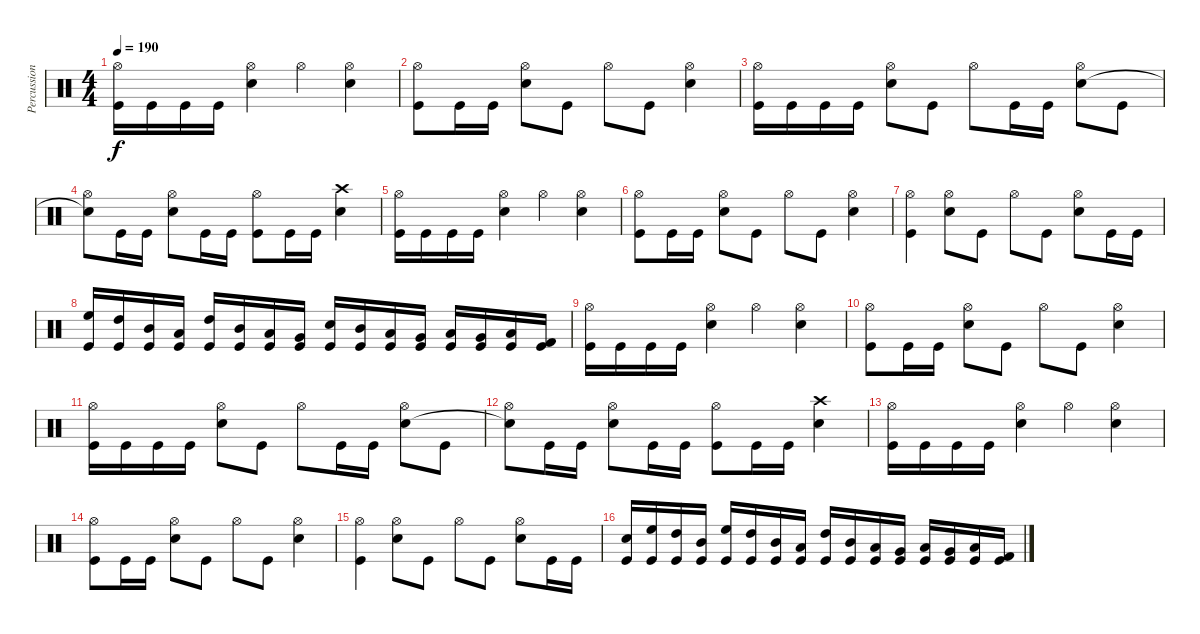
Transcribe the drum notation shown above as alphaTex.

\track ("Percussions" "Percussion") {instrument percussion}
\staff {score}
\articulation defaults
\ts (4 4)
\tempo 190
\clef neutral
\ks c
("Hi-Hat (open)" "Kick (hit)").16{dy f} "Kick (hit)".16 "Kick (hit)".16 "Kick (hit)".16 ("Hi-Hat (open)" "Snare (hit) 2").4 "Hi-Hat (open)".4 ("Hi-Hat (open)" "Snare (hit) 2").4 |
("Hi-Hat (open)" "Kick (hit)").8 "Kick (hit)".16 "Kick (hit)".16 ("Hi-Hat (open)" "Snare (hit) 2").8 "Kick (hit)".8 "Hi-Hat (open)".8 "Kick (hit)".8 ("Hi-Hat (open)" "Snare (hit) 2").4 |
("Hi-Hat (open)" "Kick (hit)").16 "Kick (hit)".16 "Kick (hit)".16 "Kick (hit)".16 ("Hi-Hat (open)" "Snare (hit) 2").8 "Kick (hit)".8 "Hi-Hat (open)".8 "Kick (hit)".16 "Kick (hit)".16 ("Hi-Hat (open)" "Snare (hit) 2").8 "Kick (hit)".8 |
("Hi-Hat (open)" "Snare (hit)"{t}).8 "Kick (hit)".16 "Kick (hit)".16 ("Hi-Hat (open)" "Snare (hit) 2").8 "Kick (hit)".16 "Kick (hit)".16 ("Hi-Hat (open)" "Kick (hit)").8 "Kick (hit)".16 "Kick (hit)".16 ("Crash high (hit)" "Snare (hit) 2").4 |
("Hi-Hat (open)" "Kick (hit)").16 "Kick (hit)".16 "Kick (hit)".16 "Kick (hit)".16 ("Hi-Hat (open)" "Snare (hit) 2").4 "Hi-Hat (open)".4 ("Hi-Hat (open)" "Snare (hit) 2").4 |
("Hi-Hat (open)" "Kick (hit)").8 "Kick (hit)".16 "Kick (hit)".16 ("Hi-Hat (open)" "Snare (hit) 2").8 "Kick (hit)".8 "Hi-Hat (open)".8 "Kick (hit)".8 ("Hi-Hat (open)" "Snare (hit) 2").4 |
("Hi-Hat (open)" "Kick (hit)").4 ("Hi-Hat (open)" "Snare (hit) 2").8 "Kick (hit)".8 "Hi-Hat (open)".8 "Kick (hit)".8 ("Hi-Hat (open)" "Snare (hit) 2").8 "Kick (hit)".16 "Kick (hit)".16 |
("High Floor Tom (hit)" "Kick (hit)").16 ("High Tom (hit)" "Kick (hit)").16 ("Mid Tom (hit)" "Kick (hit)").16 ("Low Tom (hit)" "Kick (hit)").16 ("High Tom (hit)" "Kick (hit)").16 ("Mid Tom (hit)" "Kick (hit)").16 ("Low Tom (hit)" "Kick (hit)").16 ("Very Low Tom (hit)" "Kick (hit)").16 ("Snare (hit) 2" "Kick (hit)").16 ("Mid Tom (hit)" "Kick (hit)").16 ("Low Tom (hit)" "Kick (hit)").16 ("Very Low Tom (hit)" "Kick (hit)").16 ("Low Tom (hit)" "Kick (hit)").16 ("Very Low Tom (hit)" "Kick (hit)").16 ("Low Floor Tom (hit)" "Kick (hit)").16 ("Kick (hit) 2" "Kick (hit)").16 |
("Hi-Hat (open)" "Kick (hit)").16 "Kick (hit)".16 "Kick (hit)".16 "Kick (hit)".16 ("Hi-Hat (open)" "Snare (hit) 2").4 "Hi-Hat (open)".4 ("Hi-Hat (open)" "Snare (hit) 2").4 |
("Hi-Hat (open)" "Kick (hit)").8 "Kick (hit)".16 "Kick (hit)".16 ("Hi-Hat (open)" "Snare (hit) 2").8 "Kick (hit)".8 "Hi-Hat (open)".8 "Kick (hit)".8 ("Hi-Hat (open)" "Snare (hit) 2").4 |
("Hi-Hat (open)" "Kick (hit)").16 "Kick (hit)".16 "Kick (hit)".16 "Kick (hit)".16 ("Hi-Hat (open)" "Snare (hit) 2").8 "Kick (hit)".8 "Hi-Hat (open)".8 "Kick (hit)".16 "Kick (hit)".16 ("Hi-Hat (open)" "Snare (hit) 2").8 "Kick (hit)".8 |
("Hi-Hat (open)" "Snare (hit)"{t}).8 "Kick (hit)".16 "Kick (hit)".16 ("Hi-Hat (open)" "Snare (hit) 2").8 "Kick (hit)".16 "Kick (hit)".16 ("Hi-Hat (open)" "Kick (hit)").8 "Kick (hit)".16 "Kick (hit)".16 ("Crash high (hit)" "Snare (hit) 2").4 |
("Hi-Hat (open)" "Kick (hit)").16 "Kick (hit)".16 "Kick (hit)".16 "Kick (hit)".16 ("Hi-Hat (open)" "Snare (hit) 2").4 "Hi-Hat (open)".4 ("Hi-Hat (open)" "Snare (hit) 2").4 |
("Hi-Hat (open)" "Kick (hit)").8 "Kick (hit)".16 "Kick (hit)".16 ("Hi-Hat (open)" "Snare (hit) 2").8 "Kick (hit)".8 "Hi-Hat (open)".8 "Kick (hit)".8 ("Hi-Hat (open)" "Snare (hit) 2").4 |
("Hi-Hat (open)" "Kick (hit)").4 ("Hi-Hat (open)" "Snare (hit) 2").8 "Kick (hit)".8 "Hi-Hat (open)".8 "Kick (hit)".8 ("Hi-Hat (open)" "Snare (hit) 2").8 "Kick (hit)".16 "Kick (hit)".16 |
("Snare (hit) 2" "Kick (hit)").16 ("High Floor Tom (hit)" "Kick (hit)").16 ("High Tom (hit)" "Kick (hit)").16 ("Mid Tom (hit)" "Kick (hit)").16 ("High Floor Tom (hit)" "Kick (hit)").16 ("High Tom (hit)" "Kick (hit)").16 ("Mid Tom (hit)" "Kick (hit)").16 ("Low Tom (hit)" "Kick (hit)").16 ("High Tom (hit)" "Kick (hit)").16 ("Mid Tom (hit)" "Kick (hit)").16 ("Low Tom (hit)" "Kick (hit)").16 ("Very Low Tom (hit)" "Kick (hit)").16 ("Low Tom (hit)" "Kick (hit)").16 ("Very Low Tom (hit)" "Kick (hit)").16 ("Low Floor Tom (hit)" "Kick (hit)").16 ("Kick (hit) 2" "Kick (hit)").16
